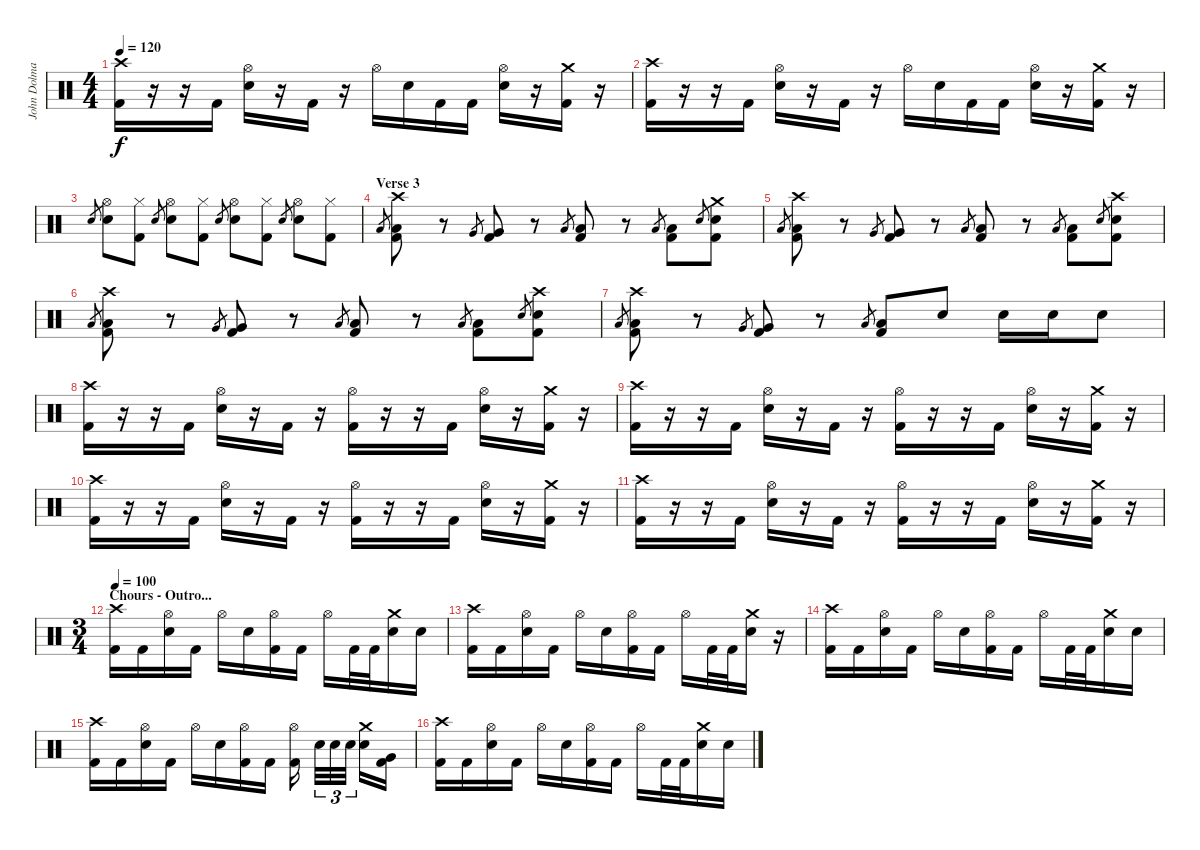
\track ("John Dolmayan" "John Dolma") {instrument percussion}
\staff {score}
\articulation defaults
\ts (4 4)
\tempo 120
\clef neutral
\ks c
("Crash high (hit)" "Kick (hit) 2").16{dy f} r.16 r.16 "Kick (hit) 2".16 ("Hi-Hat (open)" "Electric Snare (hit)").16 r.16 "Kick (hit) 2".16 r.16 "Hi-Hat (open)".16 "Electric Snare (hit)".16 "Kick (hit) 2".16 "Kick (hit) 2".16 ("Hi-Hat (open)" "Electric Snare (hit)").16 r.16 ("Crash medium (hit)" "Kick (hit) 2").16 r.16 |
("Crash high (hit)" "Kick (hit) 2").16 r.16 r.16 "Kick (hit) 2".16 ("Hi-Hat (open)" "Electric Snare (hit)").16 r.16 "Kick (hit) 2".16 r.16 "Hi-Hat (open)".16 "Electric Snare (hit)".16 "Kick (hit) 2".16 "Kick (hit) 2".16 ("Hi-Hat (open)" "Electric Snare (hit)").16 r.16 ("Crash medium (hit)" "Kick (hit) 2").16 r.16 |
"Electric Snare (hit)".8{gr} ("Hi-Hat (open)" "Electric Snare (hit)").8 ("Hi-Hat (closed)" "Kick (hit) 2").8 "Electric Snare (hit)".8{gr} ("Hi-Hat (open)" "Electric Snare (hit)").8 ("Hi-Hat (closed)" "Kick (hit) 2").8 "Electric Snare (hit)".8{gr} ("Hi-Hat (open)" "Electric Snare (hit)").8 ("Hi-Hat (closed)" "Kick (hit) 2").8 "Electric Snare (hit)".8{gr} ("Hi-Hat (open)" "Electric Snare (hit)").8 ("Hi-Hat (closed)" "Kick (hit) 2").8 |
\section ("" "Verse 3")
"Low Floor Tom (hit)".8{gr} ("Crash high (hit)" "Low Floor Tom (hit)" "Kick (hit) 2").8 r.8 "Very Low Tom (hit)".8{gr} ("Very Low Tom (hit)" "Kick (hit) 2").8 r.8 "Low Tom (hit)".8{gr} ("Low Tom (hit)" "Kick (hit) 2").8 r.8 "Low Floor Tom (hit)".8{gr} ("Low Floor Tom (hit)" "Kick (hit) 2").8 "Electric Snare (hit)".8{gr} ("Crash medium (hit)" "Electric Snare (hit)" "Kick (hit) 2").8 |
"Low Floor Tom (hit)".8{gr} ("Crash high (hit)" "Low Floor Tom (hit)" "Kick (hit) 2").8 r.8 "Very Low Tom (hit)".8{gr} ("Very Low Tom (hit)" "Kick (hit) 2").8 r.8 "Low Tom (hit)".8{gr} ("Low Tom (hit)" "Kick (hit) 2").8 r.8 "Low Floor Tom (hit)".8{gr} ("Low Floor Tom (hit)" "Kick (hit) 2").8 "Electric Snare (hit)".8{gr} ("Crash high (hit)" "Electric Snare (hit)" "Kick (hit) 2").8 |
"Low Floor Tom (hit)".8{gr} ("Crash high (hit)" "Low Floor Tom (hit)" "Kick (hit) 2").8 r.8 "Very Low Tom (hit)".8{gr} ("Very Low Tom (hit)" "Kick (hit) 2").8 r.8 "Low Tom (hit)".8{gr} ("Low Tom (hit)" "Kick (hit) 2").8 r.8 "Low Floor Tom (hit)".8{gr} ("Low Floor Tom (hit)" "Kick (hit) 2").8 "Electric Snare (hit)".8{gr} ("Crash high (hit)" "Electric Snare (hit)" "Kick (hit) 2").8 |
"Low Floor Tom (hit)".8{gr} ("Crash high (hit)" "Low Floor Tom (hit)" "Kick (hit) 2").8 r.8 "Very Low Tom (hit)".8{gr} ("Very Low Tom (hit)" "Kick (hit) 2").8 r.8 "Low Tom (hit)".8{gr} ("Low Tom (hit)" "Kick (hit) 2").8 "Electric Snare (hit)".8 "Electric Snare (hit)".16 "Electric Snare (hit)".16 "Electric Snare (hit)".8 |
("Crash high (hit)" "Kick (hit) 2").16 r.16 r.16 "Kick (hit) 2".16 ("Hi-Hat (open)" "Electric Snare (hit)").16 r.16 "Kick (hit) 2".16 r.16 ("Hi-Hat (open)" "Kick (hit) 2").16 r.16 r.16 "Kick (hit) 2".16 ("Hi-Hat (open)" "Electric Snare (hit)").16 r.16 ("Crash medium (hit)" "Kick (hit) 2").16 r.16 |
("Crash high (hit)" "Kick (hit) 2").16 r.16 r.16 "Kick (hit) 2".16 ("Hi-Hat (open)" "Electric Snare (hit)").16 r.16 "Kick (hit) 2".16 r.16 ("Hi-Hat (open)" "Kick (hit) 2").16 r.16 r.16 "Kick (hit) 2".16 ("Hi-Hat (open)" "Electric Snare (hit)").16 r.16 ("Crash medium (hit)" "Kick (hit) 2").16 r.16 |
("Crash high (hit)" "Kick (hit) 2").16 r.16 r.16 "Kick (hit) 2".16 ("Hi-Hat (open)" "Electric Snare (hit)").16 r.16 "Kick (hit) 2".16 r.16 ("Hi-Hat (open)" "Kick (hit) 2").16 r.16 r.16 "Kick (hit) 2".16 ("Hi-Hat (open)" "Electric Snare (hit)").16 r.16 ("Crash medium (hit)" "Kick (hit) 2").16 r.16 |
("Crash high (hit)" "Kick (hit) 2").16 r.16 r.16 "Kick (hit) 2".16 ("Hi-Hat (open)" "Electric Snare (hit)").16 r.16 "Kick (hit) 2".16 r.16 ("Hi-Hat (open)" "Kick (hit) 2").16 r.16 r.16 "Kick (hit) 2".16 ("Hi-Hat (open)" "Electric Snare (hit)").16 r.16 ("Crash medium (hit)" "Kick (hit) 2").16 r.16 |
\ts (3 4)
\section ("" "Chours - Outro...")
\tempo 100
("Crash high (hit)" "Kick (hit) 2").16 "Kick (hit) 2".16 ("Hi-Hat (open)" "Electric Snare (hit)").16 "Kick (hit) 2".16 "Hi-Hat (open)".16 "Electric Snare (hit)".16 ("Hi-Hat (open)" "Kick (hit) 2").16 "Kick (hit) 2".16 "Hi-Hat (open)".16 "Kick (hit) 2".32 "Kick (hit) 2".32 ("Crash medium (hit)" "Electric Snare (hit)").16 "Electric Snare (hit)".16 |
("Crash high (hit)" "Kick (hit) 2").16 "Kick (hit) 2".16 ("Hi-Hat (open)" "Electric Snare (hit)").16 "Kick (hit) 2".16 "Hi-Hat (open)".16 "Electric Snare (hit)".16 ("Hi-Hat (open)" "Kick (hit) 2").16 "Kick (hit) 2".16 "Hi-Hat (open)".16 "Kick (hit) 2".32 "Kick (hit) 2".32 ("Crash medium (hit)" "Electric Snare (hit)").16 r.16 |
("Crash high (hit)" "Kick (hit) 2").16 "Kick (hit) 2".16 ("Hi-Hat (open)" "Electric Snare (hit)").16 "Kick (hit) 2".16 "Hi-Hat (open)".16 "Electric Snare (hit)".16 ("Hi-Hat (open)" "Kick (hit) 2").16 "Kick (hit) 2".16 "Hi-Hat (open)".16 "Kick (hit) 2".32 "Kick (hit) 2".32 ("Crash medium (hit)" "Electric Snare (hit)").16 "Electric Snare (hit)".16 |
("Crash high (hit)" "Kick (hit) 2").16 "Kick (hit) 2".16 ("Hi-Hat (open)" "Electric Snare (hit)").16 "Kick (hit) 2".16 "Hi-Hat (open)".16 "Electric Snare (hit)".16 ("Hi-Hat (open)" "Kick (hit) 2").16 "Kick (hit) 2".16 ("Hi-Hat (open)" "Kick (hit) 2").16 "Electric Snare (hit)".32{tu (3 2)} "Electric Snare (hit)".32{tu (3 2)} "Electric Snare (hit)".32{tu (3 2)} ("Crash medium (hit)" "Electric Snare (hit)").16 ("Very Low Tom (hit)" "Kick (hit) 2").16 |
("Crash high (hit)" "Kick (hit) 2").16 "Kick (hit) 2".16 ("Hi-Hat (open)" "Electric Snare (hit)").16 "Kick (hit) 2".16 "Hi-Hat (open)".16 "Electric Snare (hit)".16 ("Hi-Hat (open)" "Kick (hit) 2").16 "Kick (hit) 2".16 "Hi-Hat (open)".16 "Kick (hit) 2".32 "Kick (hit) 2".32 ("Crash medium (hit)" "Electric Snare (hit)").16 "Electric Snare (hit)".16
